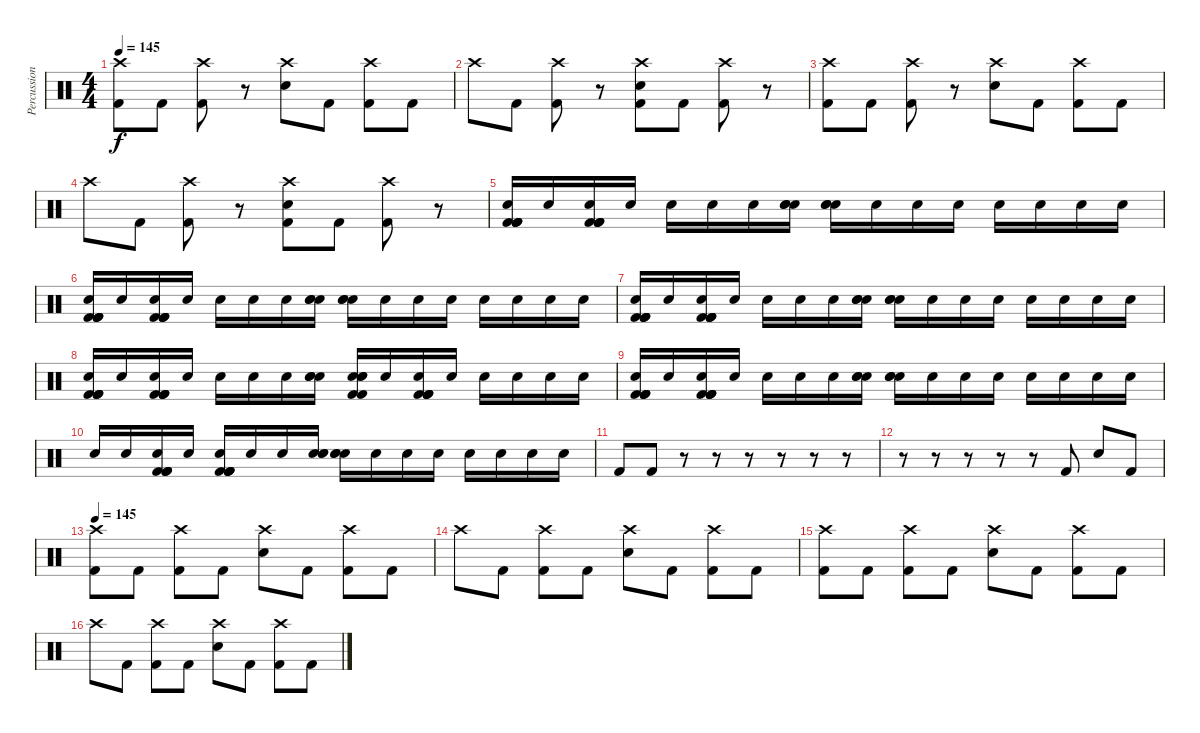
\track ("Percussion" "Percussion") {instrument percussion}
\staff {score}
\articulation defaults
\ts (4 4)
\tempo 145
\clef neutral
\ks c
("Crash high (hit)" "Kick (hit) 2").8{dy f} "Kick (hit) 2".8 ("Crash high (hit)" "Kick (hit) 2").8 r.8 ("Crash high (hit)" "Snare (hit) 2").8 "Kick (hit) 2".8 ("Crash high (hit)" "Kick (hit) 2").8 "Kick (hit) 2".8 |
"Crash high (hit)".8 "Kick (hit) 2".8 ("Crash high (hit)" "Kick (hit) 2").8 r.8 ("Crash high (hit)" "Snare (hit) 2" "Kick (hit) 2").8 "Kick (hit) 2".8 ("Crash high (hit)" "Kick (hit) 2").8 r.8 |
("Crash high (hit)" "Kick (hit) 2").8 "Kick (hit) 2".8 ("Crash high (hit)" "Kick (hit) 2").8 r.8 ("Crash high (hit)" "Snare (hit) 2").8 "Kick (hit) 2".8 ("Crash high (hit)" "Kick (hit) 2").8 "Kick (hit) 2".8 |
"Crash high (hit)".8 "Kick (hit) 2".8 ("Crash high (hit)" "Kick (hit) 2").8 r.8 ("Crash high (hit)" "Snare (hit) 2" "Kick (hit) 2").8 "Kick (hit) 2".8 ("Crash high (hit)" "Kick (hit) 2").8 r.8 |
("Kick (hit) 2" "Kick (hit) 2" "Kick (hit) 2" "Snare (hit) 2" "Kick (hit) 2").16{volume 8} "Snare (hit) 2".16 ("Kick (hit) 2" "Kick (hit) 2" "Kick (hit) 2" "Snare (hit) 2" "Kick (hit) 2").16 "Snare (hit) 2".16 "Snare (hit) 2".16 "Snare (hit) 2".16 "Snare (hit) 2".16 ("Electric Snare (hit)" "Snare (hit) 2" "Snare (hit) 2").16 ("Electric Snare (hit)" "Snare (hit) 2" "Snare (hit) 2").16 "Snare (hit) 2".16 "Snare (hit) 2".16 "Snare (hit) 2".16 "Snare (hit) 2".16 "Snare (hit) 2".16 "Snare (hit) 2".16 "Snare (hit) 2".16 |
("Kick (hit) 2" "Kick (hit) 2" "Kick (hit) 2" "Snare (hit) 2" "Kick (hit) 2").16 "Snare (hit) 2".16 ("Kick (hit) 2" "Kick (hit) 2" "Kick (hit) 2" "Snare (hit) 2" "Kick (hit) 2").16 "Snare (hit) 2".16 "Snare (hit) 2".16 "Snare (hit) 2".16 "Snare (hit) 2".16 ("Electric Snare (hit)" "Snare (hit) 2" "Snare (hit) 2").16 ("Electric Snare (hit)" "Snare (hit) 2" "Snare (hit) 2").16 "Snare (hit) 2".16 "Snare (hit) 2".16 "Snare (hit) 2".16 "Snare (hit) 2".16 "Snare (hit) 2".16 "Snare (hit) 2".16 "Snare (hit) 2".16 |
("Kick (hit) 2" "Kick (hit) 2" "Kick (hit) 2" "Snare (hit) 2" "Kick (hit) 2").16 "Snare (hit) 2".16 ("Kick (hit) 2" "Kick (hit) 2" "Kick (hit) 2" "Snare (hit) 2" "Kick (hit) 2").16 "Snare (hit) 2".16 "Snare (hit) 2".16 "Snare (hit) 2".16 "Snare (hit) 2".16 ("Electric Snare (hit)" "Snare (hit) 2" "Snare (hit) 2").16 ("Electric Snare (hit)" "Snare (hit) 2" "Snare (hit) 2").16 "Snare (hit) 2".16 "Snare (hit) 2".16 "Snare (hit) 2".16 "Snare (hit) 2".16 "Snare (hit) 2".16 "Snare (hit) 2".16 "Snare (hit) 2".16 |
("Kick (hit) 2" "Kick (hit) 2" "Kick (hit) 2" "Snare (hit) 2" "Kick (hit) 2").16 "Snare (hit) 2".16 ("Kick (hit) 2" "Kick (hit) 2" "Kick (hit) 2" "Snare (hit) 2" "Kick (hit) 2").16 "Snare (hit) 2".16 "Snare (hit) 2".16 "Snare (hit) 2".16 "Snare (hit) 2".16 ("Electric Snare (hit)" "Snare (hit) 2" "Snare (hit) 2").16 ("Electric Snare (hit)" "Electric Snare (hit)" "Kick (hit) 2" "Snare (hit) 2" "Kick (hit) 2").16 "Snare (hit) 2".16 ("Kick (hit) 2" "Kick (hit) 2" "Kick (hit) 2" "Snare (hit) 2" "Kick (hit) 2").16 "Snare (hit) 2".16 "Snare (hit) 2".16 "Snare (hit) 2".16 "Snare (hit) 2".16 "Snare (hit) 2".16 |
("Kick (hit) 2" "Kick (hit) 2" "Kick (hit) 2" "Snare (hit) 2" "Kick (hit) 2").16 "Snare (hit) 2".16 ("Kick (hit) 2" "Kick (hit) 2" "Kick (hit) 2" "Snare (hit) 2" "Kick (hit) 2").16 "Snare (hit) 2".16 "Snare (hit) 2".16 "Snare (hit) 2".16 "Snare (hit) 2".16 ("Electric Snare (hit)" "Snare (hit) 2" "Snare (hit) 2").16 ("Electric Snare (hit)" "Snare (hit) 2" "Snare (hit) 2").16 "Snare (hit) 2".16 "Snare (hit) 2".16 "Snare (hit) 2".16 "Snare (hit) 2".16 "Snare (hit) 2".16 "Snare (hit) 2".16 "Snare (hit) 2".16 |
"Snare (hit) 2".16 "Snare (hit) 2".16 ("Kick (hit) 2" "Kick (hit) 2" "Kick (hit) 2" "Snare (hit) 2" "Kick (hit) 2").16 "Snare (hit) 2".16 ("Kick (hit) 2" "Kick (hit) 2" "Kick (hit) 2" "Snare (hit) 2" "Kick (hit) 2").16 "Snare (hit) 2".16 "Snare (hit) 2".16 ("Electric Snare (hit)" "Snare (hit) 2" "Snare (hit) 2").16 ("Electric Snare (hit)" "Snare (hit) 2" "Snare (hit) 2").16 "Snare (hit) 2".16 "Snare (hit) 2".16 "Snare (hit) 2".16 "Snare (hit) 2".16 "Snare (hit) 2".16 "Snare (hit) 2".16 "Snare (hit) 2".16 |
"Kick (hit) 2".8{volume 12} "Kick (hit) 2".8 r.8 r.8 r.8 r.8 r.8 r.8 |
r.8 r.8 r.8 r.8 r.8 "Kick (hit) 2".8 "Snare (hit) 2".8 "Kick (hit) 2".8 |
\tempo 145
("Crash high (hit)" "Kick (hit) 2").8 "Kick (hit) 2".8 ("Crash high (hit)" "Kick (hit) 2").8 "Kick (hit) 2".8 ("Crash high (hit)" "Snare (hit) 2").8 "Kick (hit) 2".8 ("Crash high (hit)" "Kick (hit) 2").8 "Kick (hit) 2".8 |
"Crash high (hit)".8 "Kick (hit) 2".8 ("Crash high (hit)" "Kick (hit) 2").8 "Kick (hit) 2".8 ("Crash high (hit)" "Snare (hit) 2").8 "Kick (hit) 2".8 ("Crash high (hit)" "Kick (hit) 2").8 "Kick (hit) 2".8 |
("Crash high (hit)" "Kick (hit) 2").8 "Kick (hit) 2".8 ("Crash high (hit)" "Kick (hit) 2").8 "Kick (hit) 2".8 ("Crash high (hit)" "Snare (hit) 2").8 "Kick (hit) 2".8 ("Crash high (hit)" "Kick (hit) 2").8 "Kick (hit) 2".8 |
"Crash high (hit)".8 "Kick (hit) 2".8 ("Crash high (hit)" "Kick (hit) 2").8 "Kick (hit) 2".8 ("Crash high (hit)" "Snare (hit) 2").8 "Kick (hit) 2".8 ("Crash high (hit)" "Kick (hit) 2").8 "Kick (hit) 2".8
